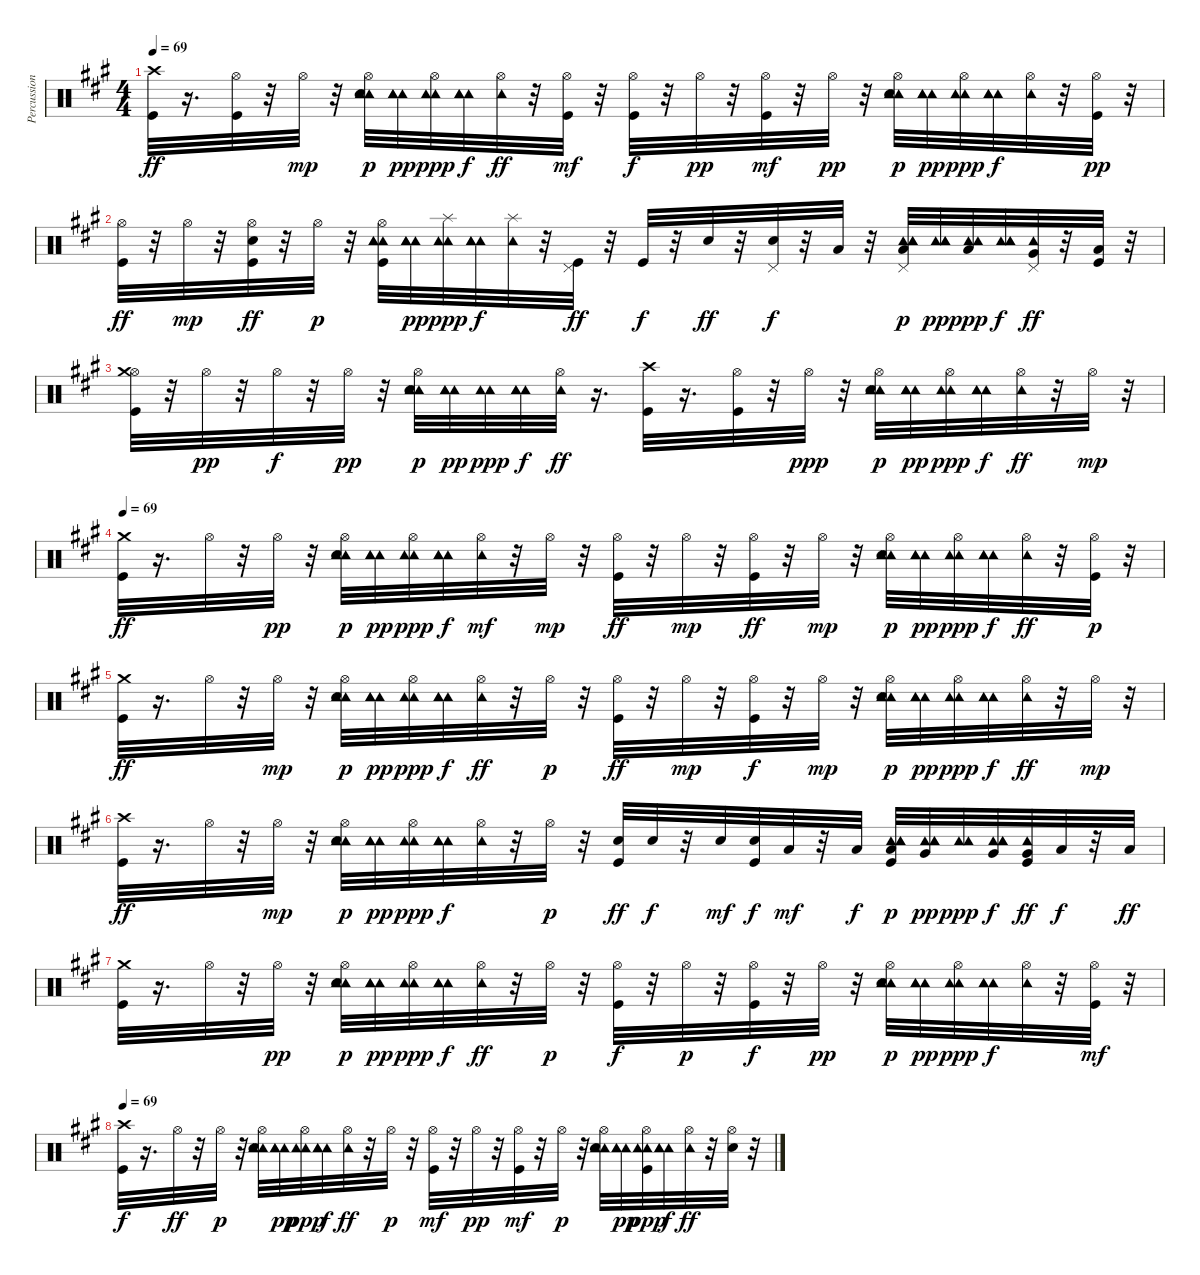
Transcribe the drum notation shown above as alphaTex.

\track ("Percussions" "Percussion") {instrument percussion}
\staff {score}
\articulation defaults
\ts (4 4)
\tempo 69
\clef neutral
\ks f#minor
("Crash high (hit)" "Kick (hit)").32{dy ff} r.16{d} ("Kick (hit)" "Hi-Hat (open)").32 r.32 "Hi-Hat (open)".32{dy mp} r.32 ("Tambourine (hit)" "Tambourine (hit)" "Electric Snare (hit)" "Hi-Hat (open)" "Tambourine (hit)").32{dy p} ("Tambourine (hit)" "Tambourine (hit)" "Tambourine (hit)").32{dy pp} ("Tambourine (hit)" "Hi-Hat (open)" "Tambourine (hit)").32{dy ppp} ("Tambourine (hit)" "Tambourine (hit)" "Tambourine (hit)").32{dy f} ("Tambourine (hit)" "Hi-Hat (open)").32{dy ff} r.32 ("Kick (hit)" "Hi-Hat (open)").32{dy mf} r.32 ("Kick (hit)" "Hi-Hat (open)").32{dy f} r.32 "Hi-Hat (open)".32{dy pp} r.32 ("Kick (hit)" "Hi-Hat (open)").32{dy mf} r.32 "Hi-Hat (open)".32{dy pp} r.32 ("Tambourine (hit)" "Tambourine (hit)" "Electric Snare (hit)" "Hi-Hat (open)" "Tambourine (hit)").32{dy p} ("Tambourine (hit)" "Tambourine (hit)" "Tambourine (hit)").32{dy pp} ("Tambourine (hit)" "Hi-Hat (open)" "Tambourine (hit)").32{dy ppp} ("Tambourine (hit)" "Tambourine (hit)" "Tambourine (hit)").32{dy f} ("Tambourine (hit)" "Hi-Hat (open)").32 r.32 ("Kick (hit)" "Hi-Hat (open)").32{dy pp} r.32 |
("Kick (hit)" "Hi-Hat (open)").32{dy ff} r.32 "Hi-Hat (open)".32{dy mp} r.32 ("Electric Snare (hit)" "Kick (hit)" "Hi-Hat (open)").32{dy ff} r.32 "Hi-Hat (open)".32{dy p} r.32 ("Tambourine (hit)" "Tambourine (hit)" "Kick (hit)" "Hi-Hat (open)" "Tambourine (hit)").32 ("Tambourine (hit)" "Tambourine (hit)" "Tambourine (hit)").32{dy pp} ("Tambourine (hit)" "Splash (hit)" "Tambourine (hit)").32{dy ppp} ("Tambourine (hit)" "Tambourine (hit)" "Tambourine (hit)").32{dy f} ("Tambourine (hit)" "Splash (hit)").32 r.32 ("Pedal Hi-Hat (hit)" "Kick (hit)").32{dy ff} r.32 "Kick (hit)".32{dy f} r.32 "Electric Snare (hit)".32{dy ff} r.32 ("Electric Snare (hit)" "Pedal Hi-Hat (hit)").32{dy f} r.32 "Low Floor Tom (hit)".32 r.32 ("Tambourine (hit)" "Tambourine (hit)" "Low Tom (hit)" "Pedal Hi-Hat (hit)" "Tambourine (hit)").32{dy p} ("Tambourine (hit)" "Tambourine (hit)" "Tambourine (hit)").32{dy pp} ("Tambourine (hit)" "Low Tom (hit)" "Tambourine (hit)").32{dy ppp} ("Tambourine (hit)" "Tambourine (hit)" "Tambourine (hit)").32{dy f} ("Tambourine (hit)" "Very Low Tom (hit)" "Pedal Hi-Hat (hit)").32{dy ff} r.32 ("Kick (hit)" "Low Floor Tom (hit)").32 r.32 |
("Kick (hit)" "Hi-Hat (open)" "Crash medium (hit)").32 r.32 "Hi-Hat (open)".32{dy pp} r.32 "Hi-Hat (open)".32{dy f} r.32 "Hi-Hat (open)".32{dy pp} r.32 ("Tambourine (hit)" "Tambourine (hit)" "Electric Snare (hit)" "Hi-Hat (open)" "Tambourine (hit)").32{dy p} ("Tambourine (hit)" "Tambourine (hit)" "Tambourine (hit)").32{dy pp} ("Tambourine (hit)" "Tambourine (hit)").32{dy ppp} ("Tambourine (hit)" "Tambourine (hit)" "Tambourine (hit)").32{dy f} ("Tambourine (hit)" "Hi-Hat (open)").32{dy ff} r.16{d} ("Crash high (hit)" "Kick (hit)").32 r.16{d} ("Hi-Hat (open)" "Kick (hit)").32 r.32 "Hi-Hat (open)".32{dy ppp} r.32 ("Tambourine (hit)" "Tambourine (hit)" "Electric Snare (hit)" "Hi-Hat (open)" "Tambourine (hit)").32{dy p} ("Tambourine (hit)" "Tambourine (hit)" "Tambourine (hit)").32{dy pp} ("Tambourine (hit)" "Hi-Hat (open)" "Tambourine (hit)").32{dy ppp} ("Tambourine (hit)" "Tambourine (hit)" "Tambourine (hit)").32{dy f} ("Tambourine (hit)" "Hi-Hat (open)").32{dy ff} r.32 "Hi-Hat (open)".32{dy mp} r.32 |
\tempo 69
("Kick (hit)" "Crash medium (hit)").32{dy ff} r.16{d} "Hi-Hat (open)".32 r.32 "Hi-Hat (open)".32{dy pp} r.32 ("Tambourine (hit)" "Tambourine (hit)" "Electric Snare (hit)" "Hi-Hat (open)" "Tambourine (hit)").32{dy p} ("Tambourine (hit)" "Tambourine (hit)" "Tambourine (hit)").32{dy pp} ("Tambourine (hit)" "Hi-Hat (open)" "Tambourine (hit)").32{dy ppp} ("Tambourine (hit)" "Tambourine (hit)" "Tambourine (hit)").32{dy f} ("Tambourine (hit)" "Hi-Hat (open)").32{dy mf} r.32 "Hi-Hat (open)".32{dy mp} r.32 ("Kick (hit)" "Hi-Hat (open)").32{dy ff} r.32 "Hi-Hat (open)".32{dy mp} r.32 ("Hi-Hat (open)" "Kick (hit)").32{dy ff} r.32 "Hi-Hat (open)".32{dy mp} r.32 ("Tambourine (hit)" "Tambourine (hit)" "Hi-Hat (open)" "Electric Snare (hit)" "Tambourine (hit)").32{dy p} ("Tambourine (hit)" "Tambourine (hit)" "Tambourine (hit)").32{dy pp} ("Tambourine (hit)" "Hi-Hat (open)" "Tambourine (hit)").32{dy ppp} ("Tambourine (hit)" "Tambourine (hit)" "Tambourine (hit)").32{dy f} ("Tambourine (hit)" "Hi-Hat (open)").32{dy ff} r.32 ("Kick (hit)" "Hi-Hat (open)").32{dy p} r.32 |
("Crash medium (hit)" "Kick (hit)").32{dy ff} r.16{d} "Hi-Hat (open)".32 r.32 "Hi-Hat (open)".32{dy mp} r.32 ("Tambourine (hit)" "Tambourine (hit)" "Hi-Hat (open)" "Electric Snare (hit)" "Tambourine (hit)").32{dy p} ("Tambourine (hit)" "Tambourine (hit)" "Tambourine (hit)").32{dy pp} ("Tambourine (hit)" "Hi-Hat (open)" "Tambourine (hit)").32{dy ppp} ("Tambourine (hit)" "Tambourine (hit)" "Tambourine (hit)").32{dy f} ("Tambourine (hit)" "Hi-Hat (open)").32{dy ff} r.32 "Hi-Hat (open)".32{dy p} r.32 ("Kick (hit)" "Hi-Hat (open)").32{dy ff} r.32 "Hi-Hat (open)".32{dy mp} r.32 ("Kick (hit)" "Hi-Hat (open)").32{dy f} r.32 "Hi-Hat (open)".32{dy mp} r.32 ("Tambourine (hit)" "Tambourine (hit)" "Hi-Hat (open)" "Electric Snare (hit)" "Tambourine (hit)").32{dy p} ("Tambourine (hit)" "Tambourine (hit)" "Tambourine (hit)").32{dy pp} ("Tambourine (hit)" "Hi-Hat (open)" "Tambourine (hit)").32{dy ppp} ("Tambourine (hit)" "Tambourine (hit)" "Tambourine (hit)").32{dy f} ("Tambourine (hit)" "Hi-Hat (open)").32{dy ff} r.32 "Hi-Hat (open)".32{dy mp} r.32 |
("Kick (hit)" "Crash high (hit)").32{dy ff} r.16{d} "Hi-Hat (open)".32 r.32 "Hi-Hat (open)".32{dy mp} r.32 ("Tambourine (hit)" "Tambourine (hit)" "Electric Snare (hit)" "Hi-Hat (open)" "Tambourine (hit)").32{dy p} ("Tambourine (hit)" "Tambourine (hit)" "Tambourine (hit)").32{dy pp} ("Tambourine (hit)" "Hi-Hat (open)" "Tambourine (hit)").32{dy ppp} ("Tambourine (hit)" "Tambourine (hit)" "Tambourine (hit)").32{dy f} ("Tambourine (hit)" "Hi-Hat (open)").32 r.32 "Hi-Hat (open)".32{dy p} r.32 ("Electric Snare (hit)" "Kick (hit)").32{dy ff} "Electric Snare (hit)".32{dy f} r.32 "Electric Snare (hit)".32{dy mf} ("Electric Snare (hit)" "Kick (hit)").32{dy f} "Low Tom (hit)".32{dy mf} r.32 "Low Tom (hit)".32{dy f} ("Tambourine (hit)" "Low Tom (hit)" "Tambourine (hit)" "Kick (hit)" "Tambourine (hit)").32{dy p} ("Tambourine (hit)" "Tambourine (hit)" "Very Low Tom (hit)" "Tambourine (hit)").32{dy pp} ("Tambourine (hit)" "Tambourine (hit)").32{dy ppp} ("Tambourine (hit)" "Very Low Tom (hit)" "Tambourine (hit)" "Tambourine (hit)").32{dy f} ("Tambourine (hit)" "Very Low Tom (hit)" "Kick (hit)").32{dy ff} "Low Floor Tom (hit)".32{dy f} r.32 "Low Floor Tom (hit)".32{dy ff} |
("Crash medium (hit)" "Kick (hit)").32 r.16{d} "Hi-Hat (open)".32 r.32 "Hi-Hat (open)".32{dy pp} r.32 ("Tambourine (hit)" "Hi-Hat (open)" "Electric Snare (hit)" "Tambourine (hit)" "Tambourine (hit)").32{dy p} ("Tambourine (hit)" "Tambourine (hit)" "Tambourine (hit)").32{dy pp} ("Tambourine (hit)" "Hi-Hat (open)" "Tambourine (hit)").32{dy ppp} ("Tambourine (hit)" "Tambourine (hit)" "Tambourine (hit)").32{dy f} ("Tambourine (hit)" "Hi-Hat (open)").32{dy ff} r.32 "Hi-Hat (open)".32{dy p} r.32 ("Hi-Hat (open)" "Kick (hit)").32{dy f} r.32 "Hi-Hat (open)".32{dy p} r.32 ("Hi-Hat (open)" "Kick (hit)").32{dy f} r.32 "Hi-Hat (open)".32{dy pp} r.32 ("Tambourine (hit)" "Hi-Hat (open)" "Tambourine (hit)" "Electric Snare (hit)" "Tambourine (hit)").32{dy p} ("Tambourine (hit)" "Tambourine (hit)" "Tambourine (hit)").32{dy pp} ("Tambourine (hit)" "Hi-Hat (open)" "Tambourine (hit)").32{dy ppp} ("Tambourine (hit)" "Tambourine (hit)" "Tambourine (hit)").32{dy f} ("Tambourine (hit)" "Hi-Hat (open)").32 r.32 ("Hi-Hat (open)" "Kick (hit)").32{dy mf} r.32 |
\tempo 69
("Crash high (hit)" "Kick (hit)").32{dy f} r.16{d} "Hi-Hat (open)".32{dy ff} r.32 "Hi-Hat (open)".32{dy p} r.32 ("Tambourine (hit)" "Tambourine (hit)" "Electric Snare (hit)" "Hi-Hat (open)" "Tambourine (hit)").32 ("Tambourine (hit)" "Tambourine (hit)" "Tambourine (hit)").32{dy pp} ("Tambourine (hit)" "Hi-Hat (open)" "Tambourine (hit)").32{dy ppp} ("Tambourine (hit)" "Tambourine (hit)" "Tambourine (hit)").32{dy f} ("Tambourine (hit)" "Hi-Hat (open)").32{dy ff} r.32 "Hi-Hat (open)".32{dy p} r.32 ("Kick (hit)" "Hi-Hat (open)").32{dy mf} r.32 "Hi-Hat (open)".32{dy pp} r.32 ("Hi-Hat (open)" "Kick (hit)").32{dy mf} r.32 "Hi-Hat (open)".32{dy p} r.32 ("Tambourine (hit)" "Hi-Hat (open)" "Tambourine (hit)" "Electric Snare (hit)" "Tambourine (hit)").32 ("Tambourine (hit)" "Tambourine (hit)" "Tambourine (hit)").32{dy pp} ("Tambourine (hit)" "Hi-Hat (open)" "Kick (hit)" "Tambourine (hit)").32{dy ppp} ("Tambourine (hit)" "Tambourine (hit)" "Tambourine (hit)").32{dy f} ("Tambourine (hit)" "Hi-Hat (open)").32{dy ff} r.32 ("Hi-Hat (open)" "Electric Snare (hit)").32 r.32
